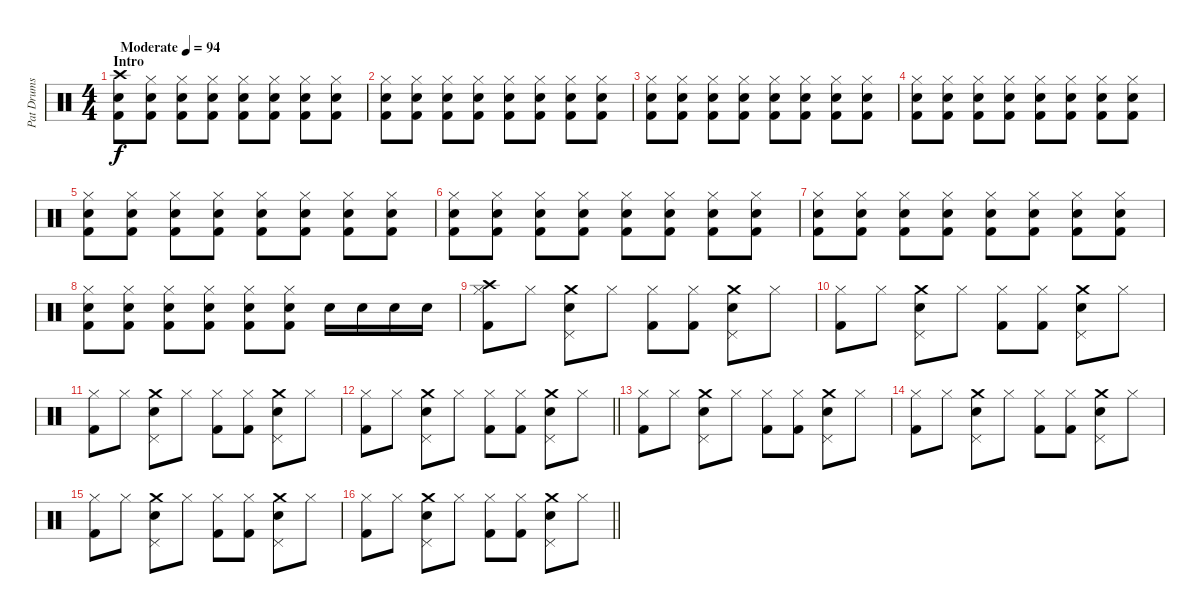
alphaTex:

\track ("Pat Drums" "Pat Drums") {instrument percussion}
\staff {score}
\articulation defaults
\ts (4 4)
\section ("" "Intro")
\tempo (94 "Moderate")
\clef neutral
\ks c
("Electric Snare (hit)" "Crash high (hit)" "Kick (hit) 2").8{dy f} ("Electric Snare (hit)" "Hi-Hat (closed)" "Kick (hit) 2").8 ("Electric Snare (hit)" "Hi-Hat (closed)" "Kick (hit) 2").8 ("Electric Snare (hit)" "Hi-Hat (closed)" "Kick (hit) 2").8 ("Electric Snare (hit)" "Hi-Hat (closed)" "Kick (hit) 2").8 ("Electric Snare (hit)" "Hi-Hat (closed)" "Kick (hit) 2").8 ("Electric Snare (hit)" "Hi-Hat (closed)" "Kick (hit) 2").8 ("Electric Snare (hit)" "Hi-Hat (closed)" "Kick (hit) 2").8 |
("Electric Snare (hit)" "Hi-Hat (closed)" "Kick (hit) 2").8 ("Electric Snare (hit)" "Hi-Hat (closed)" "Kick (hit) 2").8 ("Electric Snare (hit)" "Hi-Hat (closed)" "Kick (hit) 2").8 ("Electric Snare (hit)" "Hi-Hat (closed)" "Kick (hit) 2").8 ("Electric Snare (hit)" "Hi-Hat (closed)" "Kick (hit) 2").8 ("Electric Snare (hit)" "Hi-Hat (closed)" "Kick (hit) 2").8 ("Electric Snare (hit)" "Hi-Hat (closed)" "Kick (hit) 2").8 ("Electric Snare (hit)" "Hi-Hat (closed)" "Kick (hit) 2").8 |
("Electric Snare (hit)" "Hi-Hat (closed)" "Kick (hit) 2").8 ("Electric Snare (hit)" "Hi-Hat (closed)" "Kick (hit) 2").8 ("Electric Snare (hit)" "Hi-Hat (closed)" "Kick (hit) 2").8 ("Electric Snare (hit)" "Hi-Hat (closed)" "Kick (hit) 2").8 ("Electric Snare (hit)" "Hi-Hat (closed)" "Kick (hit) 2").8 ("Electric Snare (hit)" "Hi-Hat (closed)" "Kick (hit) 2").8 ("Electric Snare (hit)" "Hi-Hat (closed)" "Kick (hit) 2").8 ("Electric Snare (hit)" "Hi-Hat (closed)" "Kick (hit) 2").8 |
("Electric Snare (hit)" "Hi-Hat (closed)" "Kick (hit) 2").8 ("Electric Snare (hit)" "Hi-Hat (closed)" "Kick (hit) 2").8 ("Electric Snare (hit)" "Hi-Hat (closed)" "Kick (hit) 2").8 ("Electric Snare (hit)" "Hi-Hat (closed)" "Kick (hit) 2").8 ("Electric Snare (hit)" "Hi-Hat (closed)" "Kick (hit) 2").8 ("Electric Snare (hit)" "Hi-Hat (closed)" "Kick (hit) 2").8 ("Electric Snare (hit)" "Hi-Hat (closed)" "Kick (hit) 2").8 ("Electric Snare (hit)" "Hi-Hat (closed)" "Kick (hit) 2").8 |
("Electric Snare (hit)" "Hi-Hat (closed)" "Kick (hit) 2").8 ("Electric Snare (hit)" "Hi-Hat (closed)" "Kick (hit) 2").8 ("Electric Snare (hit)" "Hi-Hat (closed)" "Kick (hit) 2").8 ("Electric Snare (hit)" "Hi-Hat (closed)" "Kick (hit) 2").8 ("Electric Snare (hit)" "Hi-Hat (closed)" "Kick (hit) 2").8 ("Electric Snare (hit)" "Hi-Hat (closed)" "Kick (hit) 2").8 ("Electric Snare (hit)" "Hi-Hat (closed)" "Kick (hit) 2").8 ("Electric Snare (hit)" "Hi-Hat (closed)" "Kick (hit) 2").8 |
("Electric Snare (hit)" "Hi-Hat (closed)" "Kick (hit) 2").8 ("Electric Snare (hit)" "Hi-Hat (closed)" "Kick (hit) 2").8 ("Electric Snare (hit)" "Hi-Hat (closed)" "Kick (hit) 2").8 ("Electric Snare (hit)" "Hi-Hat (closed)" "Kick (hit) 2").8 ("Electric Snare (hit)" "Hi-Hat (closed)" "Kick (hit) 2").8 ("Electric Snare (hit)" "Hi-Hat (closed)" "Kick (hit) 2").8 ("Electric Snare (hit)" "Hi-Hat (closed)" "Kick (hit) 2").8 ("Electric Snare (hit)" "Hi-Hat (closed)" "Kick (hit) 2").8 |
("Electric Snare (hit)" "Hi-Hat (closed)" "Kick (hit) 2").8 ("Electric Snare (hit)" "Hi-Hat (closed)" "Kick (hit) 2").8 ("Electric Snare (hit)" "Hi-Hat (closed)" "Kick (hit) 2").8 ("Electric Snare (hit)" "Hi-Hat (closed)" "Kick (hit) 2").8 ("Electric Snare (hit)" "Hi-Hat (closed)" "Kick (hit) 2").8 ("Electric Snare (hit)" "Hi-Hat (closed)" "Kick (hit) 2").8 ("Electric Snare (hit)" "Hi-Hat (closed)" "Kick (hit) 2").8 ("Electric Snare (hit)" "Hi-Hat (closed)" "Kick (hit) 2").8 |
("Electric Snare (hit)" "Hi-Hat (closed)" "Kick (hit) 2").8 ("Electric Snare (hit)" "Hi-Hat (closed)" "Kick (hit) 2").8 ("Electric Snare (hit)" "Hi-Hat (closed)" "Kick (hit) 2").8 ("Electric Snare (hit)" "Hi-Hat (closed)" "Kick (hit) 2").8 ("Electric Snare (hit)" "Hi-Hat (closed)" "Kick (hit) 2").8 ("Electric Snare (hit)" "Hi-Hat (closed)" "Kick (hit) 2").8 "Electric Snare (hit)".16 "Electric Snare (hit)".16 "Electric Snare (hit)".16 "Electric Snare (hit)".16 |
("Hi-Hat (closed)" "Kick (hit) 2" "Crash high (hit)").8 "Hi-Hat (closed)".8 ("Electric Snare (hit)" "Pedal Hi-Hat (hit)" "Crash medium (hit)").8 "Hi-Hat (closed)".8 ("Hi-Hat (closed)" "Kick (hit) 2").8 ("Hi-Hat (closed)" "Kick (hit) 2").8 ("Electric Snare (hit)" "Pedal Hi-Hat (hit)" "Crash medium (hit)").8 "Hi-Hat (closed)".8 |
("Hi-Hat (closed)" "Kick (hit) 2").8 "Hi-Hat (closed)".8 ("Electric Snare (hit)" "Pedal Hi-Hat (hit)" "Crash medium (hit)").8 "Hi-Hat (closed)".8 ("Hi-Hat (closed)" "Kick (hit) 2").8 ("Hi-Hat (closed)" "Kick (hit) 2").8 ("Electric Snare (hit)" "Pedal Hi-Hat (hit)" "Crash medium (hit)").8 "Hi-Hat (closed)".8 |
("Hi-Hat (closed)" "Kick (hit) 2").8 "Hi-Hat (closed)".8 ("Electric Snare (hit)" "Pedal Hi-Hat (hit)" "Crash medium (hit)").8 "Hi-Hat (closed)".8 ("Hi-Hat (closed)" "Kick (hit) 2").8 ("Hi-Hat (closed)" "Kick (hit) 2").8 ("Electric Snare (hit)" "Pedal Hi-Hat (hit)" "Crash medium (hit)").8 "Hi-Hat (closed)".8 |
\barLineRight lightlight
("Hi-Hat (closed)" "Kick (hit) 2").8 "Hi-Hat (closed)".8 ("Electric Snare (hit)" "Pedal Hi-Hat (hit)" "Crash medium (hit)").8 "Hi-Hat (closed)".8 ("Hi-Hat (closed)" "Kick (hit) 2").8 ("Hi-Hat (closed)" "Kick (hit) 2").8 ("Electric Snare (hit)" "Pedal Hi-Hat (hit)" "Crash medium (hit)").8 "Hi-Hat (closed)".8 |
("Hi-Hat (closed)" "Kick (hit) 2").8 "Hi-Hat (closed)".8 ("Electric Snare (hit)" "Pedal Hi-Hat (hit)" "Crash medium (hit)").8 "Hi-Hat (closed)".8 ("Hi-Hat (closed)" "Kick (hit) 2").8 ("Hi-Hat (closed)" "Kick (hit) 2").8 ("Electric Snare (hit)" "Pedal Hi-Hat (hit)" "Crash medium (hit)").8 "Hi-Hat (closed)".8 |
("Hi-Hat (closed)" "Kick (hit) 2").8 "Hi-Hat (closed)".8 ("Electric Snare (hit)" "Pedal Hi-Hat (hit)" "Crash medium (hit)").8 "Hi-Hat (closed)".8 ("Hi-Hat (closed)" "Kick (hit) 2").8 ("Hi-Hat (closed)" "Kick (hit) 2").8 ("Electric Snare (hit)" "Pedal Hi-Hat (hit)" "Crash medium (hit)").8 "Hi-Hat (closed)".8 |
("Hi-Hat (closed)" "Kick (hit) 2").8 "Hi-Hat (closed)".8 ("Electric Snare (hit)" "Pedal Hi-Hat (hit)" "Crash medium (hit)").8 "Hi-Hat (closed)".8 ("Hi-Hat (closed)" "Kick (hit) 2").8 ("Hi-Hat (closed)" "Kick (hit) 2").8 ("Electric Snare (hit)" "Pedal Hi-Hat (hit)" "Crash medium (hit)").8 "Hi-Hat (closed)".8 |
\barLineRight lightlight
("Hi-Hat (closed)" "Kick (hit) 2").8 "Hi-Hat (closed)".8 ("Electric Snare (hit)" "Pedal Hi-Hat (hit)" "Crash medium (hit)").8 "Hi-Hat (closed)".8 ("Hi-Hat (closed)" "Kick (hit) 2").8 ("Hi-Hat (closed)" "Kick (hit) 2").8 ("Electric Snare (hit)" "Pedal Hi-Hat (hit)" "Crash medium (hit)").8 "Hi-Hat (closed)".8
